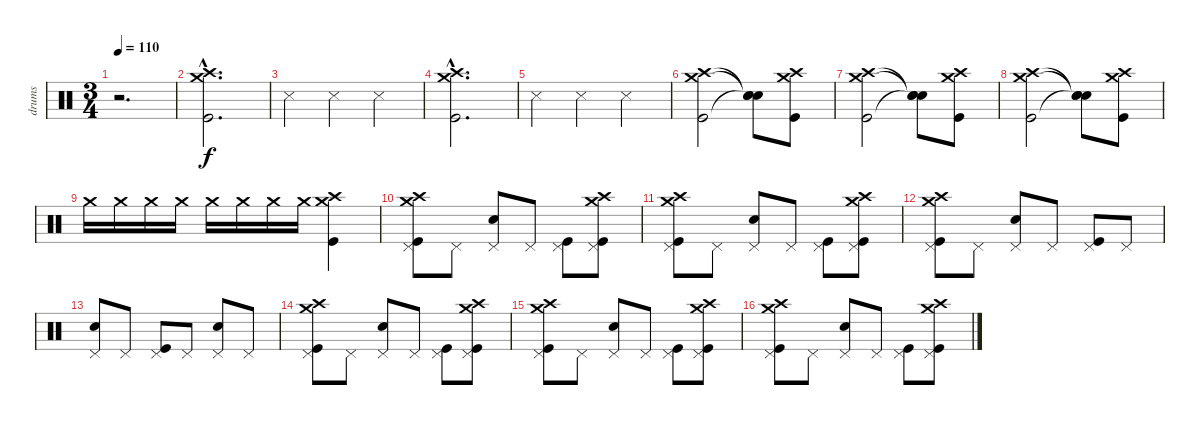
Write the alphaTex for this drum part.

\track ("drums" "drums") {instrument percussion}
\staff {score}
\articulation defaults
\ts (3 4)
\tempo 110
\clef neutral
\ks c
r.2{d dy f} |
("Crash medium (hit)"{hac} "Crash high (hit)"{hac} "Kick (hit)"{hac}).2{d} |
"Snare (side stick) 3".4 "Snare (side stick) 3".4 "Snare (side stick) 3".4 |
("Crash medium (hit)"{hac} "Crash high (hit)"{hac} "Kick (hit)"{hac}).2{d} |
"Snare (side stick) 3".4 "Snare (side stick) 3".4 "Snare (side stick) 3".4 |
("Crash medium (hit)" "Crash high (hit)" "Kick (hit)").2 ("Snare (hit)"{t} "Snare (hit)"{t} "Snare (hit)"{t}).8 ("Crash medium (hit)" "Crash high (hit)" "Kick (hit)").8 |
("Crash medium (hit)" "Crash high (hit)" "Kick (hit)").2 ("Snare (hit)"{t} "Snare (hit)"{t} "Snare (hit)"{t}).8 ("Crash medium (hit)" "Crash high (hit)" "Kick (hit)").8 |
("Crash medium (hit)" "Crash high (hit)" "Kick (hit)").2 ("Snare (hit)"{t} "Snare (hit)"{t} "Snare (hit)"{t}).8 ("Crash medium (hit)" "Crash high (hit)" "Kick (hit)").8 |
"Crash medium (hit)".16 "Crash medium (hit)".16 "Crash medium (hit)".16 "Crash medium (hit)".16 "Crash medium (hit)".16 "Crash medium (hit)".16 "Crash medium (hit)".16 "Crash medium (hit)".16 ("Crash medium (hit)" "Crash high (hit)" "Kick (hit)").4 |
("Pedal Hi-Hat (hit)" "Crash medium (hit)" "Crash high (hit)" "Kick (hit)").8 "Pedal Hi-Hat (hit)".8 ("Pedal Hi-Hat (hit)" "Snare (hit) 2").8 "Pedal Hi-Hat (hit)".8 ("Pedal Hi-Hat (hit)" "Kick (hit)").8 ("Pedal Hi-Hat (hit)" "Crash medium (hit)" "Crash high (hit)" "Kick (hit)").8 |
("Pedal Hi-Hat (hit)" "Crash medium (hit)" "Crash high (hit)" "Kick (hit)").8 "Pedal Hi-Hat (hit)".8 ("Pedal Hi-Hat (hit)" "Snare (hit) 2").8 "Pedal Hi-Hat (hit)".8 ("Pedal Hi-Hat (hit)" "Kick (hit)").8 ("Pedal Hi-Hat (hit)" "Crash medium (hit)" "Crash high (hit)" "Kick (hit)").8 |
("Pedal Hi-Hat (hit)" "Crash medium (hit)" "Crash high (hit)" "Kick (hit)").8 "Pedal Hi-Hat (hit)".8 ("Pedal Hi-Hat (hit)" "Snare (hit) 2").8 "Pedal Hi-Hat (hit)".8 ("Pedal Hi-Hat (hit)" "Kick (hit)").8 "Pedal Hi-Hat (hit)".8 |
("Pedal Hi-Hat (hit)" "Snare (hit) 2").8 "Pedal Hi-Hat (hit)".8 ("Pedal Hi-Hat (hit)" "Kick (hit)").8 "Pedal Hi-Hat (hit)".8 ("Pedal Hi-Hat (hit)" "Snare (hit) 2").8 "Pedal Hi-Hat (hit)".8 |
("Pedal Hi-Hat (hit)" "Crash medium (hit)" "Crash high (hit)" "Kick (hit)").8 "Pedal Hi-Hat (hit)".8 ("Pedal Hi-Hat (hit)" "Snare (hit) 2").8 "Pedal Hi-Hat (hit)".8 ("Pedal Hi-Hat (hit)" "Kick (hit)").8 ("Pedal Hi-Hat (hit)" "Crash medium (hit)" "Crash high (hit)" "Kick (hit)").8 |
("Pedal Hi-Hat (hit)" "Crash medium (hit)" "Crash high (hit)" "Kick (hit)").8 "Pedal Hi-Hat (hit)".8 ("Pedal Hi-Hat (hit)" "Snare (hit) 2").8 "Pedal Hi-Hat (hit)".8 ("Pedal Hi-Hat (hit)" "Kick (hit)").8 ("Pedal Hi-Hat (hit)" "Crash medium (hit)" "Crash high (hit)" "Kick (hit)").8 |
("Pedal Hi-Hat (hit)" "Crash medium (hit)" "Crash high (hit)" "Kick (hit)").8 "Pedal Hi-Hat (hit)".8 ("Pedal Hi-Hat (hit)" "Snare (hit) 2").8 "Pedal Hi-Hat (hit)".8 ("Pedal Hi-Hat (hit)" "Kick (hit)").8 ("Pedal Hi-Hat (hit)" "Crash medium (hit)" "Crash high (hit)" "Kick (hit)").8
